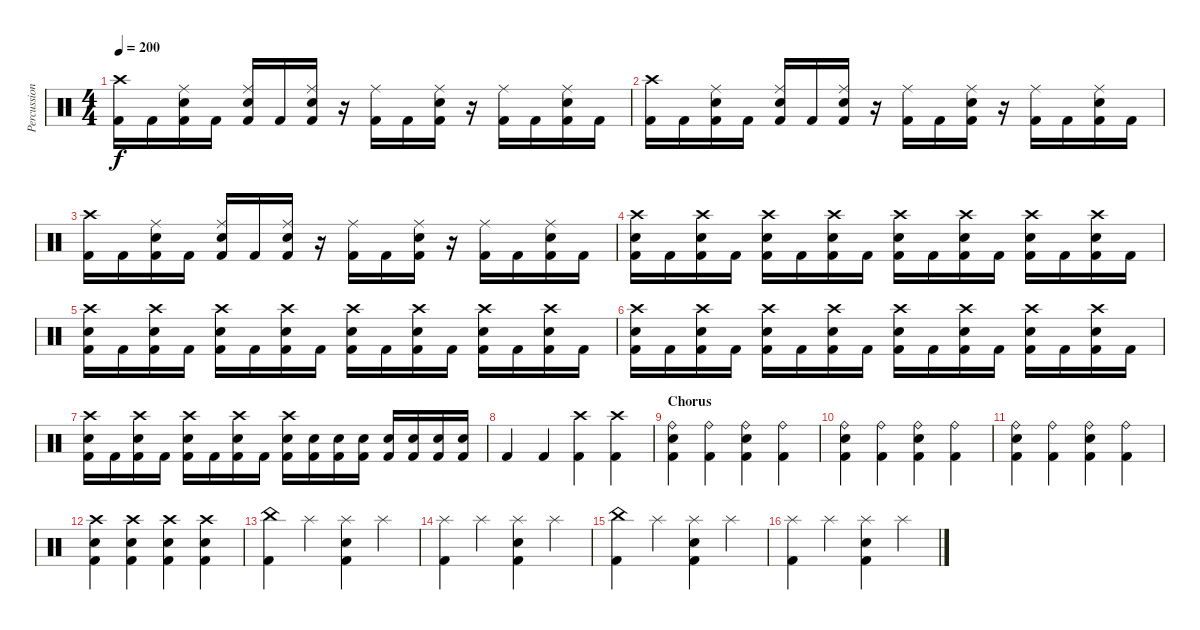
\track ("Percussion" "Percussion") {instrument percussion}
\staff {score}
\articulation defaults
\ts (4 4)
\tempo 200
\clef neutral
\ks c
("Crash high (hit)" "Kick (hit) 2").16{dy f} "Kick (hit) 2".16 ("Ride (middle)" "Snare (hit) 2" "Kick (hit) 2").16 "Kick (hit) 2".16 ("Ride (middle)" "Snare (hit) 2" "Kick (hit) 2").16 "Kick (hit) 2".16 ("Ride (middle)" "Snare (hit) 2" "Kick (hit) 2").16 r.16 ("Ride (middle)" "Kick (hit) 2").16 "Kick (hit) 2".16 ("Ride (middle)" "Snare (hit) 2" "Kick (hit) 2").16 r.16 ("Ride (middle)" "Kick (hit) 2").16 "Kick (hit) 2".16 ("Ride (middle)" "Snare (hit) 2" "Kick (hit) 2").16 "Kick (hit) 2".16 |
("Crash high (hit)" "Kick (hit) 2").16 "Kick (hit) 2".16 ("Ride (middle)" "Snare (hit) 2" "Kick (hit) 2").16 "Kick (hit) 2".16 ("Ride (middle)" "Snare (hit) 2" "Kick (hit) 2").16 "Kick (hit) 2".16 ("Ride (middle)" "Snare (hit) 2" "Kick (hit) 2").16 r.16 ("Ride (middle)" "Kick (hit) 2").16 "Kick (hit) 2".16 ("Ride (middle)" "Snare (hit) 2" "Kick (hit) 2").16 r.16 ("Ride (middle)" "Kick (hit) 2").16 "Kick (hit) 2".16 ("Ride (middle)" "Snare (hit) 2" "Kick (hit) 2").16 "Kick (hit) 2".16 |
("Crash high (hit)" "Kick (hit) 2").16 "Kick (hit) 2".16 ("Ride (middle)" "Snare (hit) 2" "Kick (hit) 2").16 "Kick (hit) 2".16 ("Ride (middle)" "Snare (hit) 2" "Kick (hit) 2").16 "Kick (hit) 2".16 ("Ride (middle)" "Snare (hit) 2" "Kick (hit) 2").16 r.16 ("Ride (middle)" "Kick (hit) 2").16 "Kick (hit) 2".16 ("Ride (middle)" "Snare (hit) 2" "Kick (hit) 2").16 r.16 ("Ride (middle)" "Kick (hit) 2").16 "Kick (hit) 2".16 ("Ride (middle)" "Snare (hit) 2" "Kick (hit) 2").16 "Kick (hit) 2".16 |
("Crash high (hit)" "Snare (hit) 2" "Kick (hit) 2").16 "Kick (hit) 2".16 ("Crash high (hit)" "Snare (hit) 2" "Kick (hit) 2").16 "Kick (hit) 2".16 ("Crash high (hit)" "Snare (hit) 2" "Kick (hit) 2").16 "Kick (hit) 2".16 ("Crash high (hit)" "Snare (hit) 2" "Kick (hit) 2").16 "Kick (hit) 2".16 ("Crash high (hit)" "Snare (hit) 2" "Kick (hit) 2").16 "Kick (hit) 2".16 ("Crash high (hit)" "Snare (hit) 2" "Kick (hit) 2").16 "Kick (hit) 2".16 ("Crash high (hit)" "Snare (hit) 2" "Kick (hit) 2").16 "Kick (hit) 2".16 ("Crash high (hit)" "Snare (hit) 2" "Kick (hit) 2").16 "Kick (hit) 2".16 |
("Crash high (hit)" "Snare (hit) 2" "Kick (hit) 2").16 "Kick (hit) 2".16 ("Crash high (hit)" "Snare (hit) 2" "Kick (hit) 2").16 "Kick (hit) 2".16 ("Crash high (hit)" "Snare (hit) 2" "Kick (hit) 2").16 "Kick (hit) 2".16 ("Crash high (hit)" "Snare (hit) 2" "Kick (hit) 2").16 "Kick (hit) 2".16 ("Crash high (hit)" "Snare (hit) 2" "Kick (hit) 2").16 "Kick (hit) 2".16 ("Crash high (hit)" "Snare (hit) 2" "Kick (hit) 2").16 "Kick (hit) 2".16 ("Crash high (hit)" "Snare (hit) 2" "Kick (hit) 2").16 "Kick (hit) 2".16 ("Crash high (hit)" "Snare (hit) 2" "Kick (hit) 2").16 "Kick (hit) 2".16 |
("Crash high (hit)" "Snare (hit) 2" "Kick (hit) 2").16 "Kick (hit) 2".16 ("Crash high (hit)" "Snare (hit) 2" "Kick (hit) 2").16 "Kick (hit) 2".16 ("Crash high (hit)" "Snare (hit) 2" "Kick (hit) 2").16 "Kick (hit) 2".16 ("Crash high (hit)" "Snare (hit) 2" "Kick (hit) 2").16 "Kick (hit) 2".16 ("Crash high (hit)" "Snare (hit) 2" "Kick (hit) 2").16 "Kick (hit) 2".16 ("Crash high (hit)" "Snare (hit) 2" "Kick (hit) 2").16 "Kick (hit) 2".16 ("Crash high (hit)" "Snare (hit) 2" "Kick (hit) 2").16 "Kick (hit) 2".16 ("Crash high (hit)" "Snare (hit) 2" "Kick (hit) 2").16 "Kick (hit) 2".16 |
("Crash high (hit)" "Snare (hit) 2" "Kick (hit) 2").16 "Kick (hit) 2".16 ("Crash high (hit)" "Snare (hit) 2" "Kick (hit) 2").16 "Kick (hit) 2".16 ("Crash high (hit)" "Snare (hit) 2" "Kick (hit) 2").16 "Kick (hit) 2".16 ("Crash high (hit)" "Snare (hit) 2" "Kick (hit) 2").16 "Kick (hit) 2".16 ("Crash high (hit)" "Snare (hit) 2" "Kick (hit) 2").16 ("Snare (hit) 2" "Kick (hit) 2").16 ("Snare (hit) 2" "Kick (hit) 2").16 ("Snare (hit) 2" "Kick (hit) 2").16 ("Snare (hit) 2" "Kick (hit) 2").16 ("Snare (hit) 2" "Kick (hit) 2").16 ("Snare (hit) 2" "Kick (hit) 2").16 ("Snare (hit) 2" "Kick (hit) 2").16 |
"Kick (hit) 2".4 "Kick (hit) 2".4 ("Crash high (hit)" "Kick (hit) 2").4 ("Crash high (hit)" "Kick (hit) 2").4 |
\section ("" "Chorus")
("Ride (bell)" "Snare (hit) 2" "Kick (hit) 2").4 ("Ride (bell)" "Kick (hit) 2").4 ("Ride (bell)" "Snare (hit) 2" "Kick (hit) 2").4 ("Ride (bell)" "Kick (hit) 2").4 |
("Ride (bell)" "Snare (hit) 2" "Kick (hit) 2").4 ("Ride (bell)" "Kick (hit) 2").4 ("Ride (bell)" "Snare (hit) 2" "Kick (hit) 2").4 ("Ride (bell)" "Kick (hit) 2").4 |
("Ride (bell)" "Snare (hit) 2" "Kick (hit) 2").4 ("Ride (bell)" "Kick (hit) 2").4 ("Ride (bell)" "Snare (hit) 2" "Kick (hit) 2").4 ("Ride (bell)" "Kick (hit) 2").4 |
("Crash high (hit)" "Snare (hit) 2" "Kick (hit) 2").4 ("Crash high (hit)" "Snare (hit) 2" "Kick (hit) 2").4 ("Crash high (hit)" "Snare (hit) 2" "Kick (hit) 2").4 ("Crash high (hit)" "Snare (hit) 2" "Kick (hit) 2").4 |
("China (hit)" "Kick (hit) 2").4 "Splash (hit)".4 ("Splash (hit)" "Snare (hit) 2" "Kick (hit) 2").4 "Splash (hit)".4 |
("Splash (hit)" "Kick (hit) 2").4 "Splash (hit)".4 ("Splash (hit)" "Snare (hit) 2" "Kick (hit) 2").4 "Splash (hit)".4 |
("China (hit)" "Kick (hit) 2").4 "Splash (hit)".4 ("Splash (hit)" "Snare (hit) 2" "Kick (hit) 2").4 "Splash (hit)".4 |
("Splash (hit)" "Kick (hit) 2").4 "Splash (hit)".4 ("Splash (hit)" "Snare (hit) 2" "Kick (hit) 2").4 "Splash (hit)".4
